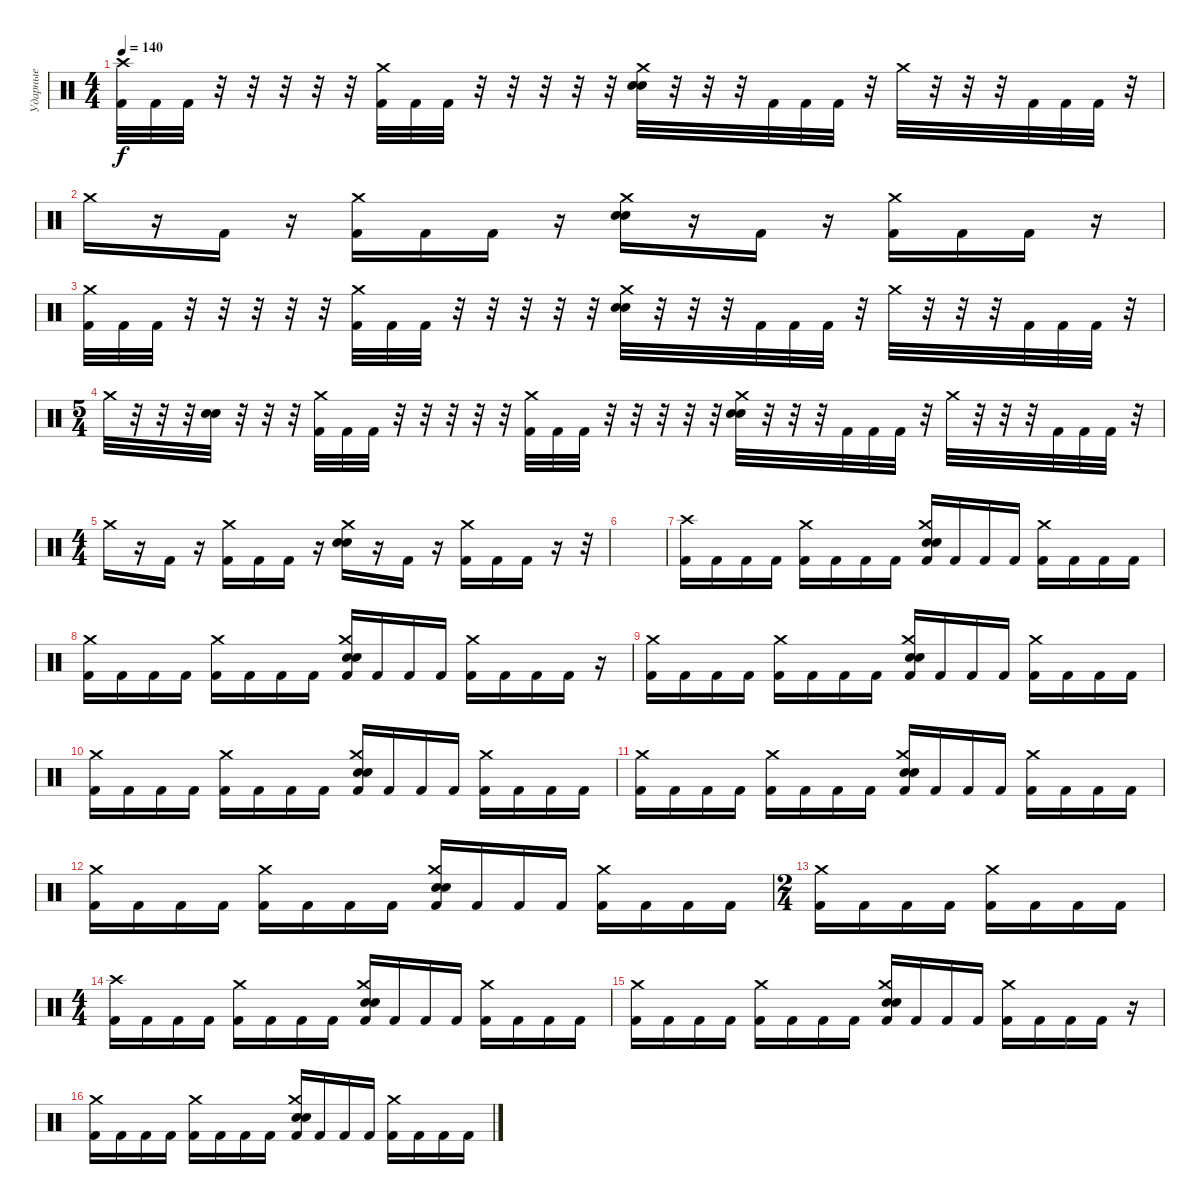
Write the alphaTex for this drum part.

\track ("Ударные" "Ударные") {instrument percussion}
\staff {score}
\articulation defaults
\ts (4 4)
\tempo 140
\clef neutral
\ks c
("Crash high (hit)" "Kick (hit) 2").32{dy f} "Kick (hit) 2".32 "Kick (hit) 2".32 r.32 r.32 r.32 r.32 r.32 ("Crash medium (hit)" "Kick (hit) 2").32 "Kick (hit) 2".32 "Kick (hit) 2".32 r.32 r.32 r.32 r.32 r.32 ("Crash medium (hit)" "Electric Snare (hit)" "Snare (hit) 2").32 r.32 r.32 r.32 "Kick (hit) 2".32 "Kick (hit) 2".32 "Kick (hit) 2".32 r.32 "Crash medium (hit)".32 r.32 r.32 r.32 "Kick (hit) 2".32 "Kick (hit) 2".32 "Kick (hit) 2".32 r.32 |
"Crash medium (hit)".16 r.16 "Kick (hit) 2".16 r.16 ("Crash medium (hit)" "Kick (hit) 2").16 "Kick (hit) 2".16 "Kick (hit) 2".16 r.16 ("Crash medium (hit)" "Electric Snare (hit)" "Snare (hit) 2").16 r.16 "Kick (hit) 2".16 r.16 ("Crash medium (hit)" "Kick (hit) 2").16 "Kick (hit) 2".16 "Kick (hit) 2".16 r.16 |
("Crash medium (hit)" "Kick (hit) 2").32 "Kick (hit) 2".32 "Kick (hit) 2".32 r.32 r.32 r.32 r.32 r.32 ("Crash medium (hit)" "Kick (hit) 2").32 "Kick (hit) 2".32 "Kick (hit) 2".32 r.32 r.32 r.32 r.32 r.32 ("Crash medium (hit)" "Electric Snare (hit)" "Snare (hit) 2").32 r.32 r.32 r.32 "Kick (hit) 2".32 "Kick (hit) 2".32 "Kick (hit) 2".32 r.32 "Crash medium (hit)".32 r.32 r.32 r.32 "Kick (hit) 2".32 "Kick (hit) 2".32 "Kick (hit) 2".32 r.32 |
\ts (5 4)
"Crash medium (hit)".32 r.32 r.32 r.32 ("Electric Snare (hit)" "Snare (hit) 2").32 r.32 r.32 r.32 ("Crash medium (hit)" "Kick (hit) 2").32 "Kick (hit) 2".32 "Kick (hit) 2".32 r.32 r.32 r.32 r.32 r.32 ("Crash medium (hit)" "Kick (hit) 2").32 "Kick (hit) 2".32 "Kick (hit) 2".32 r.32 r.32 r.32 r.32 r.32 ("Crash medium (hit)" "Electric Snare (hit)" "Snare (hit) 2").32 r.32 r.32 r.32 "Kick (hit) 2".32 "Kick (hit) 2".32 "Kick (hit) 2".32 r.32 "Crash medium (hit)".32 r.32 r.32 r.32 "Kick (hit) 2".32 "Kick (hit) 2".32 "Kick (hit) 2".32 r.32 |
\ts (4 4)
"Crash medium (hit)".16 r.16 "Kick (hit) 2".16 r.16 ("Crash medium (hit)" "Kick (hit) 2").16 "Kick (hit) 2".16 "Kick (hit) 2".16 r.16 ("Crash medium (hit)" "Electric Snare (hit)" "Snare (hit) 2").16 r.16 "Kick (hit) 2".16 r.16 ("Crash medium (hit)" "Kick (hit) 2").16 "Kick (hit) 2".16 "Kick (hit) 2".16 r.16 r.32 |
|
("Crash high (hit)" "Kick (hit) 2").16 "Kick (hit) 2".16 "Kick (hit) 2".16 "Kick (hit) 2".16 ("Crash medium (hit)" "Kick (hit) 2").16 "Kick (hit) 2".16 "Kick (hit) 2".16 "Kick (hit) 2".16 ("Crash medium (hit)" "Electric Snare (hit)" "Snare (hit) 2" "Kick (hit) 2").16 "Kick (hit) 2".16 "Kick (hit) 2".16 "Kick (hit) 2".16 ("Crash medium (hit)" "Kick (hit) 2").16 "Kick (hit) 2".16 "Kick (hit) 2".16 "Kick (hit) 2".16 |
("Crash medium (hit)" "Kick (hit) 2").16 "Kick (hit) 2".16 "Kick (hit) 2".16 "Kick (hit) 2".16 ("Crash medium (hit)" "Kick (hit) 2").16 "Kick (hit) 2".16 "Kick (hit) 2".16 "Kick (hit) 2".16 ("Crash medium (hit)" "Electric Snare (hit)" "Snare (hit) 2" "Kick (hit) 2").16 "Kick (hit) 2".16 "Kick (hit) 2".16 "Kick (hit) 2".16 ("Crash medium (hit)" "Kick (hit) 2").16 "Kick (hit) 2".16 "Kick (hit) 2".16 "Kick (hit) 2".16 r.16 |
("Crash medium (hit)" "Kick (hit) 2").16 "Kick (hit) 2".16 "Kick (hit) 2".16 "Kick (hit) 2".16 ("Crash medium (hit)" "Kick (hit) 2").16 "Kick (hit) 2".16 "Kick (hit) 2".16 "Kick (hit) 2".16 ("Crash medium (hit)" "Electric Snare (hit)" "Snare (hit) 2" "Kick (hit) 2").16 "Kick (hit) 2".16 "Kick (hit) 2".16 "Kick (hit) 2".16 ("Crash medium (hit)" "Kick (hit) 2").16 "Kick (hit) 2".16 "Kick (hit) 2".16 "Kick (hit) 2".16 |
("Crash medium (hit)" "Kick (hit) 2").16 "Kick (hit) 2".16 "Kick (hit) 2".16 "Kick (hit) 2".16 ("Crash medium (hit)" "Kick (hit) 2").16 "Kick (hit) 2".16 "Kick (hit) 2".16 "Kick (hit) 2".16 ("Crash medium (hit)" "Electric Snare (hit)" "Snare (hit) 2" "Kick (hit) 2").16 "Kick (hit) 2".16 "Kick (hit) 2".16 "Kick (hit) 2".16 ("Crash medium (hit)" "Kick (hit) 2").16 "Kick (hit) 2".16 "Kick (hit) 2".16 "Kick (hit) 2".16 |
("Crash medium (hit)" "Kick (hit) 2").16 "Kick (hit) 2".16 "Kick (hit) 2".16 "Kick (hit) 2".16 ("Crash medium (hit)" "Kick (hit) 2").16 "Kick (hit) 2".16 "Kick (hit) 2".16 "Kick (hit) 2".16 ("Crash medium (hit)" "Electric Snare (hit)" "Snare (hit) 2" "Kick (hit) 2").16 "Kick (hit) 2".16 "Kick (hit) 2".16 "Kick (hit) 2".16 ("Crash medium (hit)" "Kick (hit) 2").16 "Kick (hit) 2".16 "Kick (hit) 2".16 "Kick (hit) 2".16 |
("Crash medium (hit)" "Kick (hit) 2").16 "Kick (hit) 2".16 "Kick (hit) 2".16 "Kick (hit) 2".16 ("Crash medium (hit)" "Kick (hit) 2").16 "Kick (hit) 2".16 "Kick (hit) 2".16 "Kick (hit) 2".16 ("Crash medium (hit)" "Electric Snare (hit)" "Snare (hit) 2" "Kick (hit) 2").16 "Kick (hit) 2".16 "Kick (hit) 2".16 "Kick (hit) 2".16 ("Crash medium (hit)" "Kick (hit) 2").16 "Kick (hit) 2".16 "Kick (hit) 2".16 "Kick (hit) 2".16 |
\ts (2 4)
("Crash medium (hit)" "Kick (hit) 2").16 "Kick (hit) 2".16 "Kick (hit) 2".16 "Kick (hit) 2".16 ("Crash medium (hit)" "Kick (hit) 2").16 "Kick (hit) 2".16 "Kick (hit) 2".16 "Kick (hit) 2".16 |
\ts (4 4)
("Crash high (hit)" "Kick (hit) 2").16 "Kick (hit) 2".16 "Kick (hit) 2".16 "Kick (hit) 2".16 ("Crash medium (hit)" "Kick (hit) 2").16 "Kick (hit) 2".16 "Kick (hit) 2".16 "Kick (hit) 2".16 ("Crash medium (hit)" "Electric Snare (hit)" "Snare (hit) 2" "Kick (hit) 2").16 "Kick (hit) 2".16 "Kick (hit) 2".16 "Kick (hit) 2".16 ("Crash medium (hit)" "Kick (hit) 2").16 "Kick (hit) 2".16 "Kick (hit) 2".16 "Kick (hit) 2".16 |
("Crash medium (hit)" "Kick (hit) 2").16 "Kick (hit) 2".16 "Kick (hit) 2".16 "Kick (hit) 2".16 ("Crash medium (hit)" "Kick (hit) 2").16 "Kick (hit) 2".16 "Kick (hit) 2".16 "Kick (hit) 2".16 ("Crash medium (hit)" "Electric Snare (hit)" "Snare (hit) 2" "Kick (hit) 2").16 "Kick (hit) 2".16 "Kick (hit) 2".16 "Kick (hit) 2".16 ("Crash medium (hit)" "Kick (hit) 2").16 "Kick (hit) 2".16 "Kick (hit) 2".16 "Kick (hit) 2".16 r.16 |
("Crash medium (hit)" "Kick (hit) 2").16 "Kick (hit) 2".16 "Kick (hit) 2".16 "Kick (hit) 2".16 ("Crash medium (hit)" "Kick (hit) 2").16 "Kick (hit) 2".16 "Kick (hit) 2".16 "Kick (hit) 2".16 ("Crash medium (hit)" "Electric Snare (hit)" "Snare (hit) 2" "Kick (hit) 2").16 "Kick (hit) 2".16 "Kick (hit) 2".16 "Kick (hit) 2".16 ("Crash medium (hit)" "Kick (hit) 2").16 "Kick (hit) 2".16 "Kick (hit) 2".16 "Kick (hit) 2".16
